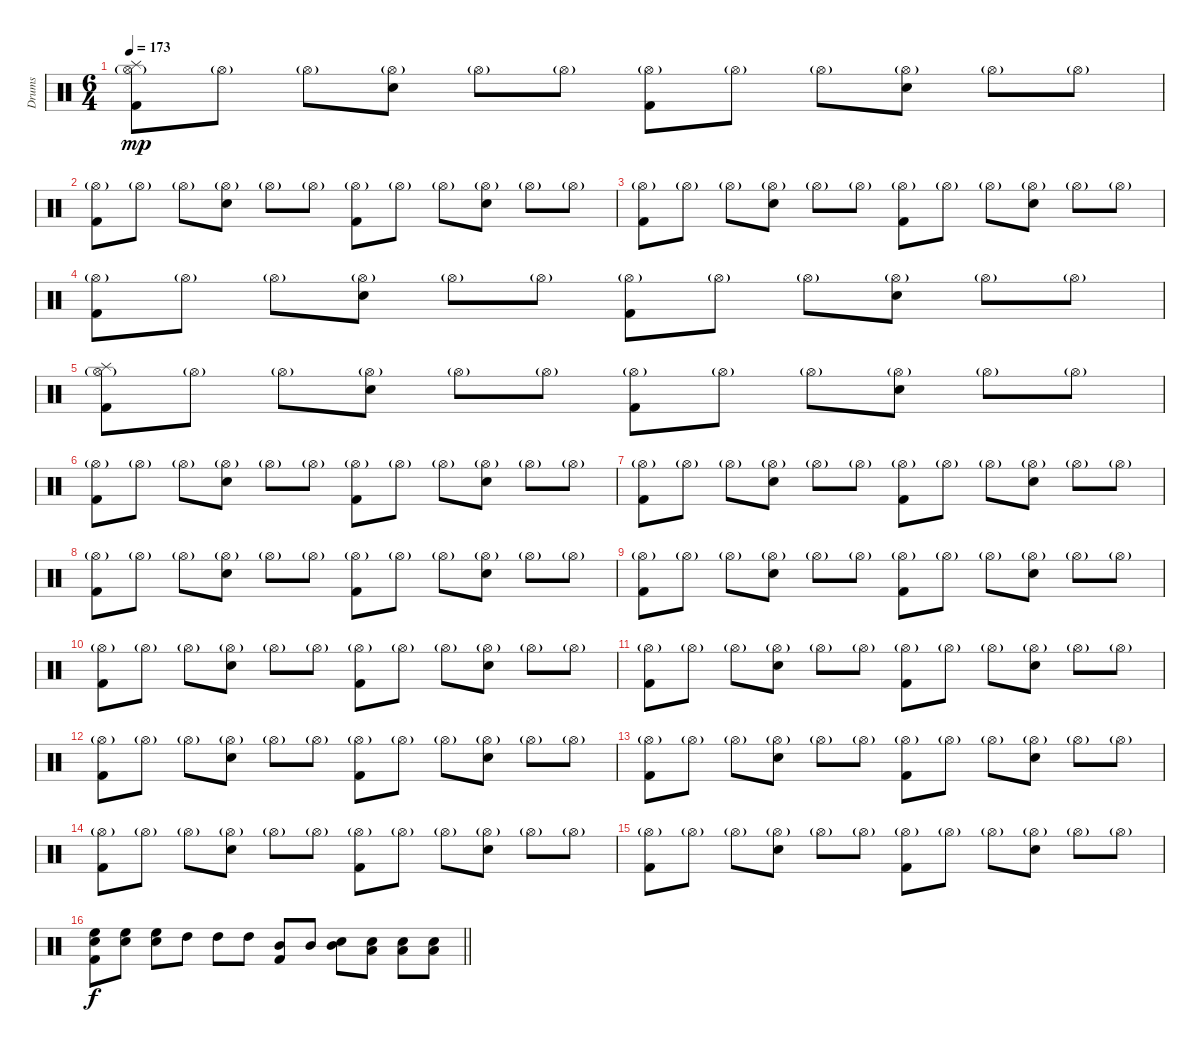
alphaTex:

\track ("Drums" "Drums") {instrument percussion}
\staff {score}
\articulation defaults
\ts (6 4)
\section ("" "")
\tempo 173
\clef neutral
\ks c
("Kick (hit) 2" "Hi-Hat (open)"{g} "Splash (hit)").8{dy mp} "Hi-Hat (open)"{g}.8 "Hi-Hat (open)"{g}.8 ("Snare (hit) 2" "Hi-Hat (open)"{g}).8 "Hi-Hat (open)"{g}.8 "Hi-Hat (open)"{g}.8 ("Kick (hit) 2" "Hi-Hat (open)"{g}).8 "Hi-Hat (open)"{g}.8 "Hi-Hat (open)"{g}.8 ("Snare (hit) 2" "Hi-Hat (open)"{g}).8 "Hi-Hat (open)"{g}.8 "Hi-Hat (open)"{g}.8 |
("Kick (hit) 2" "Hi-Hat (open)"{g}).8 "Hi-Hat (open)"{g}.8 "Hi-Hat (open)"{g}.8 ("Snare (hit) 2" "Hi-Hat (open)"{g}).8 "Hi-Hat (open)"{g}.8 "Hi-Hat (open)"{g}.8 ("Kick (hit) 2" "Hi-Hat (open)"{g}).8 "Hi-Hat (open)"{g}.8 "Hi-Hat (open)"{g}.8 ("Snare (hit) 2" "Hi-Hat (open)"{g}).8 "Hi-Hat (open)"{g}.8 "Hi-Hat (open)"{g}.8 |
("Kick (hit) 2" "Hi-Hat (open)"{g}).8 "Hi-Hat (open)"{g}.8 "Hi-Hat (open)"{g}.8 ("Snare (hit) 2" "Hi-Hat (open)"{g}).8 "Hi-Hat (open)"{g}.8 "Hi-Hat (open)"{g}.8 ("Kick (hit) 2" "Hi-Hat (open)"{g}).8 "Hi-Hat (open)"{g}.8 "Hi-Hat (open)"{g}.8 ("Snare (hit) 2" "Hi-Hat (open)"{g}).8 "Hi-Hat (open)"{g}.8 "Hi-Hat (open)"{g}.8 |
("Kick (hit) 2" "Hi-Hat (open)"{g}).8 "Hi-Hat (open)"{g}.8 "Hi-Hat (open)"{g}.8 ("Snare (hit) 2" "Hi-Hat (open)"{g}).8 "Hi-Hat (open)"{g}.8 "Hi-Hat (open)"{g}.8 ("Kick (hit) 2" "Hi-Hat (open)"{g}).8 "Hi-Hat (open)"{g}.8 "Hi-Hat (open)"{g}.8 ("Snare (hit) 2" "Hi-Hat (open)"{g}).8 "Hi-Hat (open)"{g}.8 "Hi-Hat (open)"{g}.8 |
("Kick (hit) 2" "Hi-Hat (open)"{g} "Splash (hit)").8 "Hi-Hat (open)"{g}.8 "Hi-Hat (open)"{g}.8 ("Snare (hit) 2" "Hi-Hat (open)"{g}).8 "Hi-Hat (open)"{g}.8 "Hi-Hat (open)"{g}.8 ("Kick (hit) 2" "Hi-Hat (open)"{g}).8 "Hi-Hat (open)"{g}.8 "Hi-Hat (open)"{g}.8 ("Snare (hit) 2" "Hi-Hat (open)"{g}).8 "Hi-Hat (open)"{g}.8 "Hi-Hat (open)"{g}.8 |
("Kick (hit) 2" "Hi-Hat (open)"{g}).8 "Hi-Hat (open)"{g}.8 "Hi-Hat (open)"{g}.8 ("Snare (hit) 2" "Hi-Hat (open)"{g}).8 "Hi-Hat (open)"{g}.8 "Hi-Hat (open)"{g}.8 ("Kick (hit) 2" "Hi-Hat (open)"{g}).8 "Hi-Hat (open)"{g}.8 "Hi-Hat (open)"{g}.8 ("Snare (hit) 2" "Hi-Hat (open)"{g}).8 "Hi-Hat (open)"{g}.8 "Hi-Hat (open)"{g}.8 |
("Kick (hit) 2" "Hi-Hat (open)"{g}).8 "Hi-Hat (open)"{g}.8 "Hi-Hat (open)"{g}.8 ("Snare (hit) 2" "Hi-Hat (open)"{g}).8 "Hi-Hat (open)"{g}.8 "Hi-Hat (open)"{g}.8 ("Kick (hit) 2" "Hi-Hat (open)"{g}).8 "Hi-Hat (open)"{g}.8 "Hi-Hat (open)"{g}.8 ("Snare (hit) 2" "Hi-Hat (open)"{g}).8 "Hi-Hat (open)"{g}.8 "Hi-Hat (open)"{g}.8 |
("Kick (hit) 2" "Hi-Hat (open)"{g}).8 "Hi-Hat (open)"{g}.8 "Hi-Hat (open)"{g}.8 ("Snare (hit) 2" "Hi-Hat (open)"{g}).8 "Hi-Hat (open)"{g}.8 "Hi-Hat (open)"{g}.8 ("Kick (hit) 2" "Hi-Hat (open)"{g}).8 "Hi-Hat (open)"{g}.8 "Hi-Hat (open)"{g}.8 ("Snare (hit) 2" "Hi-Hat (open)"{g}).8 "Hi-Hat (open)"{g}.8 "Hi-Hat (open)"{g}.8 |
("Kick (hit) 2" "Hi-Hat (open)"{g}).8 "Hi-Hat (open)"{g}.8 "Hi-Hat (open)"{g}.8 ("Snare (hit) 2" "Hi-Hat (open)"{g}).8 "Hi-Hat (open)"{g}.8 "Hi-Hat (open)"{g}.8 ("Kick (hit) 2" "Hi-Hat (open)"{g}).8 "Hi-Hat (open)"{g}.8 "Hi-Hat (open)"{g}.8 ("Snare (hit) 2" "Hi-Hat (open)"{g}).8 "Hi-Hat (open)"{g}.8 "Hi-Hat (open)"{g}.8 |
("Kick (hit) 2" "Hi-Hat (open)"{g}).8 "Hi-Hat (open)"{g}.8 "Hi-Hat (open)"{g}.8 ("Snare (hit) 2" "Hi-Hat (open)"{g}).8 "Hi-Hat (open)"{g}.8 "Hi-Hat (open)"{g}.8 ("Kick (hit) 2" "Hi-Hat (open)"{g}).8 "Hi-Hat (open)"{g}.8 "Hi-Hat (open)"{g}.8 ("Snare (hit) 2" "Hi-Hat (open)"{g}).8 "Hi-Hat (open)"{g}.8 "Hi-Hat (open)"{g}.8 |
("Kick (hit) 2" "Hi-Hat (open)"{g}).8 "Hi-Hat (open)"{g}.8 "Hi-Hat (open)"{g}.8 ("Snare (hit) 2" "Hi-Hat (open)"{g}).8 "Hi-Hat (open)"{g}.8 "Hi-Hat (open)"{g}.8 ("Kick (hit) 2" "Hi-Hat (open)"{g}).8 "Hi-Hat (open)"{g}.8 "Hi-Hat (open)"{g}.8 ("Snare (hit) 2" "Hi-Hat (open)"{g}).8 "Hi-Hat (open)"{g}.8 "Hi-Hat (open)"{g}.8 |
("Kick (hit) 2" "Hi-Hat (open)"{g}).8 "Hi-Hat (open)"{g}.8 "Hi-Hat (open)"{g}.8 ("Snare (hit) 2" "Hi-Hat (open)"{g}).8 "Hi-Hat (open)"{g}.8 "Hi-Hat (open)"{g}.8 ("Kick (hit) 2" "Hi-Hat (open)"{g}).8 "Hi-Hat (open)"{g}.8 "Hi-Hat (open)"{g}.8 ("Snare (hit) 2" "Hi-Hat (open)"{g}).8 "Hi-Hat (open)"{g}.8 "Hi-Hat (open)"{g}.8 |
("Kick (hit) 2" "Hi-Hat (open)"{g}).8 "Hi-Hat (open)"{g}.8 "Hi-Hat (open)"{g}.8 ("Snare (hit) 2" "Hi-Hat (open)"{g}).8 "Hi-Hat (open)"{g}.8 "Hi-Hat (open)"{g}.8 ("Kick (hit) 2" "Hi-Hat (open)"{g}).8 "Hi-Hat (open)"{g}.8 "Hi-Hat (open)"{g}.8 ("Snare (hit) 2" "Hi-Hat (open)"{g}).8 "Hi-Hat (open)"{g}.8 "Hi-Hat (open)"{g}.8 |
("Kick (hit) 2" "Hi-Hat (open)"{g}).8 "Hi-Hat (open)"{g}.8 "Hi-Hat (open)"{g}.8 ("Snare (hit) 2" "Hi-Hat (open)"{g}).8 "Hi-Hat (open)"{g}.8 "Hi-Hat (open)"{g}.8 ("Kick (hit) 2" "Hi-Hat (open)"{g}).8 "Hi-Hat (open)"{g}.8 "Hi-Hat (open)"{g}.8 ("Snare (hit) 2" "Hi-Hat (open)"{g}).8 "Hi-Hat (open)"{g}.8 "Hi-Hat (open)"{g}.8 |
("Kick (hit) 2" "Hi-Hat (open)"{g}).8 "Hi-Hat (open)"{g}.8 "Hi-Hat (open)"{g}.8 ("Snare (hit) 2" "Hi-Hat (open)"{g}).8 "Hi-Hat (open)"{g}.8 "Hi-Hat (open)"{g}.8 ("Kick (hit) 2" "Hi-Hat (open)"{g}).8 "Hi-Hat (open)"{g}.8 "Hi-Hat (open)"{g}.8 ("Snare (hit) 2" "Hi-Hat (open)"{g}).8 "Hi-Hat (open)"{g}.8 "Hi-Hat (open)"{g}.8 |
\barLineRight lightlight
("Kick (hit) 2" "Snare (hit) 2" "High Floor Tom (hit)").8{dy f} ("Snare (hit) 2" "High Floor Tom (hit)").8 ("Snare (hit) 2" "High Floor Tom (hit)").8 "High Tom (hit)".8 "High Tom (hit)".8 "High Tom (hit)".8 ("Kick (hit) 2" "Mid Tom (hit)").8 "Mid Tom (hit)".8 ("Snare (hit) 2" "Mid Tom (hit)").8 ("Snare (hit) 2" "Low Tom (hit)").8 ("Snare (hit) 2" "Low Tom (hit)").8 ("Snare (hit) 2" "Low Tom (hit)").8
